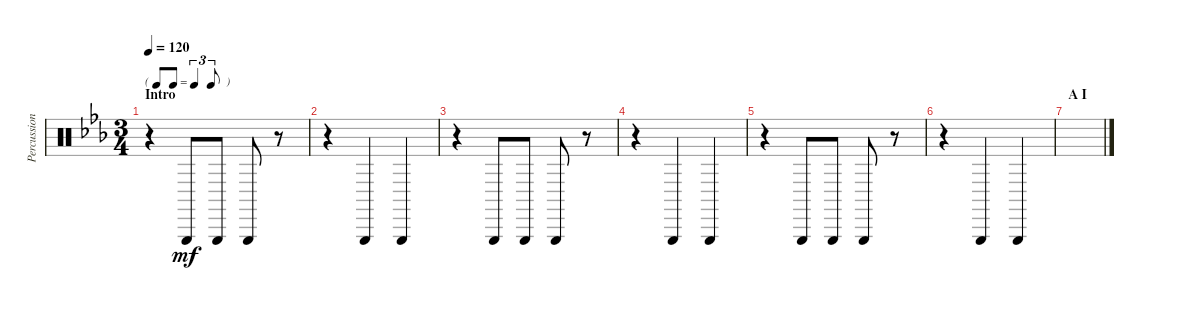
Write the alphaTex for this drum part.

\track ("Percussions" "Percussion") {instrument percussion}
\staff {score}
\articulation defaults
\ts (3 4)
\tf triplet8th
\section ("" "Intro")
\tempo 120
\clef neutral
\ks cminor
r.4{dy mf} "Triangle (hit)".8 "Triangle (hit)".8 "Triangle (hit)".8 r.8 |
r.4 "Triangle (hit)".4 "Triangle (hit)".4 |
r.4 "Triangle (hit)".8 "Triangle (hit)".8 "Triangle (hit)".8 r.8 |
r.4 "Triangle (hit)".4 "Triangle (hit)".4 |
r.4 "Triangle (hit)".8 "Triangle (hit)".8 "Triangle (hit)".8 r.8 |
r.4 "Triangle (hit)".4 "Triangle (hit)".4 |
\section ("" "A I")
